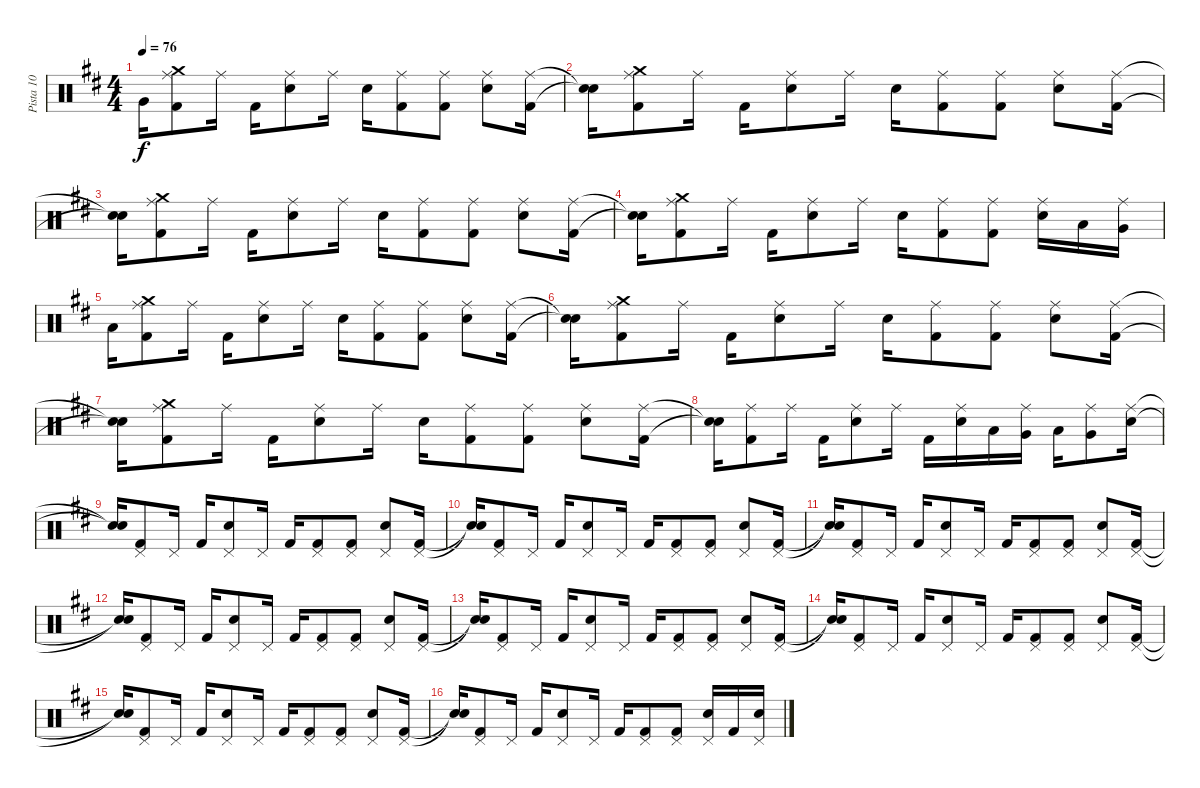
\track ("Pista 10" "Pista 10") {instrument percussion}
\staff {score}
\articulation defaults
\ts (4 4)
\tempo 76
\clef neutral
\ks d "Very Low Tom (hit)".16{dy f}
("Kick (hit) 2" "Crash medium (hit)" "Ride (middle)").8 "Ride (middle)".16 "Kick (hit) 2".16 ("Snare (hit) 2" "Ride (middle)").8 "Ride (middle)".16 "Snare (hit) 2".16 ("Kick (hit) 2" "Ride (middle)").8 ("Kick (hit) 2" "Ride (middle)").8 ("Snare (hit) 2" "Ride (middle)").8 ("Kick (hit) 2" "Ride (middle)").16 |
("Snare (hit)"{t} "Snare (hit)"{t}).16 ("Kick (hit) 2" "Crash medium (hit)" "Ride (middle)").8 "Ride (middle)".16 "Kick (hit) 2".16 ("Snare (hit) 2" "Ride (middle)").8 "Ride (middle)".16 "Snare (hit) 2".16 ("Kick (hit) 2" "Ride (middle)").8 ("Kick (hit) 2" "Ride (middle)").8 ("Snare (hit) 2" "Ride (middle)").8 ("Kick (hit) 2" "Ride (middle)").16 |
("Snare (hit)"{t} "Snare (hit)"{t}).16 ("Kick (hit) 2" "Crash medium (hit)" "Ride (middle)").8 "Ride (middle)".16 "Kick (hit) 2".16 ("Snare (hit) 2" "Ride (middle)").8 "Ride (middle)".16 "Snare (hit) 2".16 ("Kick (hit) 2" "Ride (middle)").8 ("Kick (hit) 2" "Ride (middle)").8 ("Snare (hit) 2" "Ride (middle)").8 ("Kick (hit) 2" "Ride (middle)").16 |
("Snare (hit)"{t} "Snare (hit)"{t}).16 ("Kick (hit) 2" "Crash medium (hit)" "Ride (middle)").8 "Ride (middle)".16 "Kick (hit) 2".16 ("Snare (hit) 2" "Ride (middle)").8 "Ride (middle)".16 "Snare (hit) 2".16 ("Kick (hit) 2" "Ride (middle)").8 ("Kick (hit) 2" "Ride (middle)").8 ("Snare (hit) 2" "Ride (middle)").16 "Low Tom (hit)".16 ("Very Low Tom (hit)" "Ride (middle)").16 |
"Low Floor Tom (hit)".16 ("Kick (hit) 2" "Crash medium (hit)" "Ride (middle)").8 "Ride (middle)".16 "Kick (hit) 2".16 ("Snare (hit) 2" "Ride (middle)").8 "Ride (middle)".16 "Snare (hit) 2".16 ("Kick (hit) 2" "Ride (middle)").8 ("Kick (hit) 2" "Ride (middle)").8 ("Snare (hit) 2" "Ride (middle)").8 ("Kick (hit) 2" "Ride (middle)").16 |
("Snare (hit)"{t} "Snare (hit)"{t}).16 ("Kick (hit) 2" "Crash medium (hit)" "Ride (middle)").8 "Ride (middle)".16 "Kick (hit) 2".16 ("Snare (hit) 2" "Ride (middle)").8 "Ride (middle)".16 "Snare (hit) 2".16 ("Kick (hit) 2" "Ride (middle)").8 ("Kick (hit) 2" "Ride (middle)").8 ("Snare (hit) 2" "Ride (middle)").8 ("Kick (hit) 2" "Ride (middle)").16 |
("Snare (hit)"{t} "Snare (hit)"{t}).16 ("Kick (hit) 2" "Crash medium (hit)" "Ride (middle)").8 "Ride (middle)".16 "Kick (hit) 2".16 ("Snare (hit) 2" "Ride (middle)").8 "Ride (middle)".16 "Snare (hit) 2".16 ("Kick (hit) 2" "Ride (middle)").8 ("Kick (hit) 2" "Ride (middle)").8 ("Snare (hit) 2" "Ride (middle)").8 ("Kick (hit) 2" "Ride (middle)").16 |
("Snare (hit)"{t} "Snare (hit)"{t}).16 ("Kick (hit) 2" "Ride (middle)").8 "Ride (middle)".16 "Kick (hit) 2".16 ("Snare (hit) 2" "Ride (middle)").8 "Ride (middle)".16 "Kick (hit) 2".16 ("Snare (hit) 2" "Ride (middle)").16 "Low Tom (hit)".16 ("Very Low Tom (hit)" "Ride (middle)").16 "Low Tom (hit)".16 ("Very Low Tom (hit)" "Ride (middle)").8 ("Snare (hit) 2" "Ride (middle)").16 |
("Snare (hit)"{t} "Snare (hit)"{t}).16 ("Kick (hit) 2" "Pedal Hi-Hat (hit)").8 "Pedal Hi-Hat (hit)".16 "Kick (hit) 2".16 ("Snare (hit) 2" "Pedal Hi-Hat (hit)").8 "Pedal Hi-Hat (hit)".16 "Kick (hit) 2".16 ("Kick (hit) 2" "Pedal Hi-Hat (hit)").8 ("Kick (hit) 2" "Pedal Hi-Hat (hit)").8 ("Snare (hit) 2" "Pedal Hi-Hat (hit)").8 ("Kick (hit) 2" "Pedal Hi-Hat (hit)").16 |
("Snare (hit)"{t} "Snare (hit)"{t}).16 ("Kick (hit) 2" "Pedal Hi-Hat (hit)").8 "Pedal Hi-Hat (hit)".16 "Kick (hit) 2".16 ("Snare (hit) 2" "Pedal Hi-Hat (hit)").8 "Pedal Hi-Hat (hit)".16 "Kick (hit) 2".16 ("Kick (hit) 2" "Pedal Hi-Hat (hit)").8 ("Kick (hit) 2" "Pedal Hi-Hat (hit)").8 ("Snare (hit) 2" "Pedal Hi-Hat (hit)").8 ("Kick (hit) 2" "Pedal Hi-Hat (hit)").16 |
("Snare (hit)"{t} "Snare (hit)"{t}).16 ("Kick (hit) 2" "Pedal Hi-Hat (hit)").8 "Pedal Hi-Hat (hit)".16 "Kick (hit) 2".16 ("Snare (hit) 2" "Pedal Hi-Hat (hit)").8 "Pedal Hi-Hat (hit)".16 "Kick (hit) 2".16 ("Kick (hit) 2" "Pedal Hi-Hat (hit)").8 ("Kick (hit) 2" "Pedal Hi-Hat (hit)").8 ("Snare (hit) 2" "Pedal Hi-Hat (hit)").8 ("Kick (hit) 2" "Pedal Hi-Hat (hit)").16 |
("Snare (hit)"{t} "Snare (hit)"{t}).16 ("Kick (hit) 2" "Pedal Hi-Hat (hit)").8 "Pedal Hi-Hat (hit)".16 "Kick (hit) 2".16 ("Snare (hit) 2" "Pedal Hi-Hat (hit)").8 "Pedal Hi-Hat (hit)".16 "Kick (hit) 2".16 ("Kick (hit) 2" "Pedal Hi-Hat (hit)").8 ("Kick (hit) 2" "Pedal Hi-Hat (hit)").8 ("Snare (hit) 2" "Pedal Hi-Hat (hit)").8 ("Kick (hit) 2" "Pedal Hi-Hat (hit)").16 |
("Snare (hit)"{t} "Snare (hit)"{t}).16 ("Kick (hit) 2" "Pedal Hi-Hat (hit)").8 "Pedal Hi-Hat (hit)".16 "Kick (hit) 2".16 ("Snare (hit) 2" "Pedal Hi-Hat (hit)").8 "Pedal Hi-Hat (hit)".16 "Kick (hit) 2".16 ("Kick (hit) 2" "Pedal Hi-Hat (hit)").8 ("Kick (hit) 2" "Pedal Hi-Hat (hit)").8 ("Snare (hit) 2" "Pedal Hi-Hat (hit)").8 ("Kick (hit) 2" "Pedal Hi-Hat (hit)").16 |
("Snare (hit)"{t} "Snare (hit)"{t}).16 ("Kick (hit) 2" "Pedal Hi-Hat (hit)").8 "Pedal Hi-Hat (hit)".16 "Kick (hit) 2".16 ("Snare (hit) 2" "Pedal Hi-Hat (hit)").8 "Pedal Hi-Hat (hit)".16 "Kick (hit) 2".16 ("Kick (hit) 2" "Pedal Hi-Hat (hit)").8 ("Kick (hit) 2" "Pedal Hi-Hat (hit)").8 ("Snare (hit) 2" "Pedal Hi-Hat (hit)").8 ("Kick (hit) 2" "Pedal Hi-Hat (hit)").16 |
("Snare (hit)"{t} "Snare (hit)"{t}).16 ("Kick (hit) 2" "Pedal Hi-Hat (hit)").8 "Pedal Hi-Hat (hit)".16 "Kick (hit) 2".16 ("Snare (hit) 2" "Pedal Hi-Hat (hit)").8 "Pedal Hi-Hat (hit)".16 "Kick (hit) 2".16 ("Kick (hit) 2" "Pedal Hi-Hat (hit)").8 ("Kick (hit) 2" "Pedal Hi-Hat (hit)").8 ("Snare (hit) 2" "Pedal Hi-Hat (hit)").8 ("Kick (hit) 2" "Pedal Hi-Hat (hit)").16 |
("Snare (hit)"{t} "Snare (hit)"{t}).16 ("Kick (hit) 2" "Pedal Hi-Hat (hit)").8 "Pedal Hi-Hat (hit)".16 "Kick (hit) 2".16 ("Snare (hit) 2" "Pedal Hi-Hat (hit)").8 "Pedal Hi-Hat (hit)".16 "Kick (hit) 2".16 ("Kick (hit) 2" "Pedal Hi-Hat (hit)").8 ("Kick (hit) 2" "Pedal Hi-Hat (hit)").8 ("Snare (hit) 2" "Pedal Hi-Hat (hit)").16 "Kick (hit) 2".16 ("Snare (hit) 2" "Pedal Hi-Hat (hit)").16
